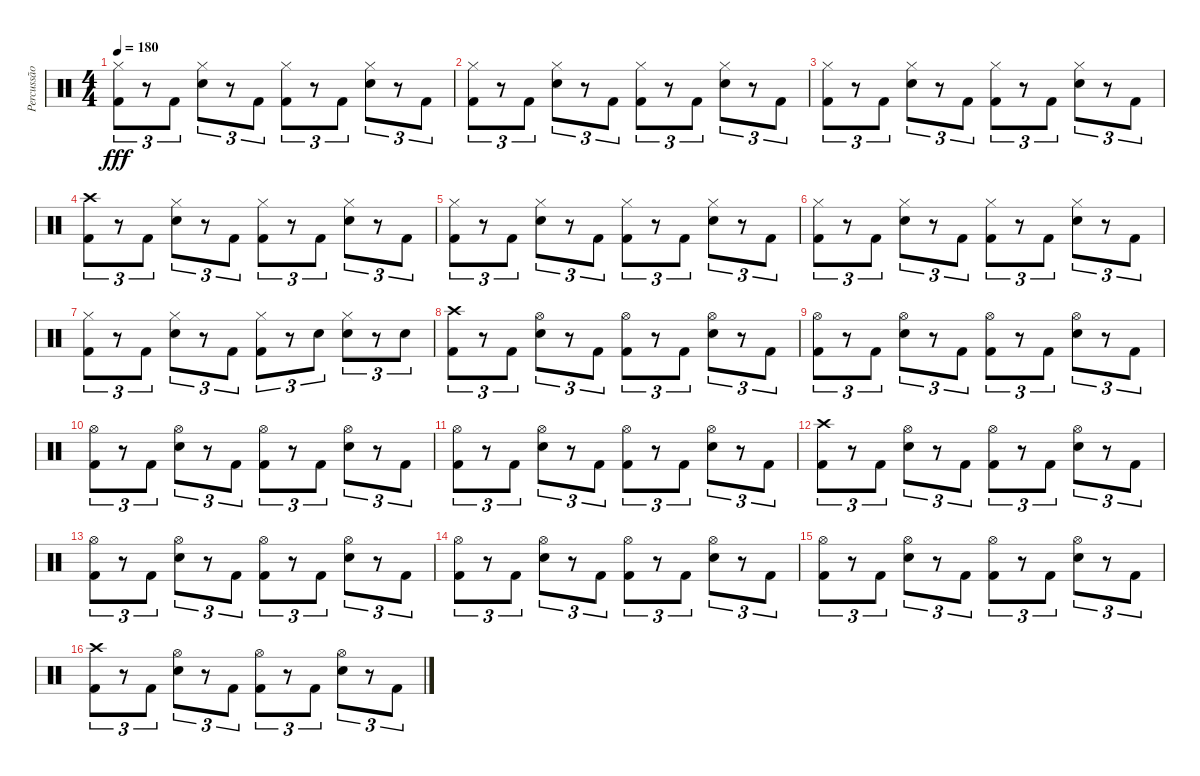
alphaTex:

\track ("Percussão" "Percussão") {instrument percussion}
\staff {score}
\articulation defaults
\ts (4 4)
\tempo 180
\clef neutral
\ks c
("Hi-Hat (closed)" "Kick (hit) 2").8{tu (3 2) dy fff} r.8{tu (3 2)} "Kick (hit) 2".8{tu (3 2)} ("Hi-Hat (closed)" "Snare (hit) 2").8{tu (3 2)} r.8{tu (3 2)} "Kick (hit) 2".8{tu (3 2)} ("Hi-Hat (closed)" "Kick (hit) 2").8{tu (3 2)} r.8{tu (3 2)} "Kick (hit) 2".8{tu (3 2)} ("Hi-Hat (closed)" "Snare (hit) 2").8{tu (3 2)} r.8{tu (3 2)} "Kick (hit) 2".8{tu (3 2)} |
("Hi-Hat (closed)" "Kick (hit) 2").8{tu (3 2)} r.8{tu (3 2)} "Kick (hit) 2".8{tu (3 2)} ("Hi-Hat (closed)" "Snare (hit) 2").8{tu (3 2)} r.8{tu (3 2)} "Kick (hit) 2".8{tu (3 2)} ("Hi-Hat (closed)" "Kick (hit) 2").8{tu (3 2)} r.8{tu (3 2)} "Kick (hit) 2".8{tu (3 2)} ("Hi-Hat (closed)" "Snare (hit) 2").8{tu (3 2)} r.8{tu (3 2)} "Kick (hit) 2".8{tu (3 2)} |
("Hi-Hat (closed)" "Kick (hit) 2").8{tu (3 2)} r.8{tu (3 2)} "Kick (hit) 2".8{tu (3 2)} ("Hi-Hat (closed)" "Snare (hit) 2").8{tu (3 2)} r.8{tu (3 2)} "Kick (hit) 2".8{tu (3 2)} ("Hi-Hat (closed)" "Kick (hit) 2").8{tu (3 2)} r.8{tu (3 2)} "Kick (hit) 2".8{tu (3 2)} ("Hi-Hat (closed)" "Snare (hit) 2").8{tu (3 2)} r.8{tu (3 2)} "Kick (hit) 2".8{tu (3 2)} |
("Crash high (hit)" "Kick (hit) 2").8{tu (3 2)} r.8{tu (3 2)} "Kick (hit) 2".8{tu (3 2)} ("Hi-Hat (closed)" "Snare (hit) 2").8{tu (3 2)} r.8{tu (3 2)} "Kick (hit) 2".8{tu (3 2)} ("Hi-Hat (closed)" "Kick (hit) 2").8{tu (3 2)} r.8{tu (3 2)} "Kick (hit) 2".8{tu (3 2)} ("Hi-Hat (closed)" "Snare (hit) 2").8{tu (3 2)} r.8{tu (3 2)} "Kick (hit) 2".8{tu (3 2)} |
("Hi-Hat (closed)" "Kick (hit) 2").8{tu (3 2)} r.8{tu (3 2)} "Kick (hit) 2".8{tu (3 2)} ("Hi-Hat (closed)" "Snare (hit) 2").8{tu (3 2)} r.8{tu (3 2)} "Kick (hit) 2".8{tu (3 2)} ("Hi-Hat (closed)" "Kick (hit) 2").8{tu (3 2)} r.8{tu (3 2)} "Kick (hit) 2".8{tu (3 2)} ("Hi-Hat (closed)" "Snare (hit) 2").8{tu (3 2)} r.8{tu (3 2)} "Kick (hit) 2".8{tu (3 2)} |
("Hi-Hat (closed)" "Kick (hit) 2").8{tu (3 2)} r.8{tu (3 2)} "Kick (hit) 2".8{tu (3 2)} ("Hi-Hat (closed)" "Snare (hit) 2").8{tu (3 2)} r.8{tu (3 2)} "Kick (hit) 2".8{tu (3 2)} ("Hi-Hat (closed)" "Kick (hit) 2").8{tu (3 2)} r.8{tu (3 2)} "Kick (hit) 2".8{tu (3 2)} ("Hi-Hat (closed)" "Snare (hit) 2").8{tu (3 2)} r.8{tu (3 2)} "Kick (hit) 2".8{tu (3 2)} |
("Hi-Hat (closed)" "Kick (hit) 2").8{tu (3 2)} r.8{tu (3 2)} "Kick (hit) 2".8{tu (3 2)} ("Hi-Hat (closed)" "Snare (hit) 2").8{tu (3 2)} r.8{tu (3 2)} "Kick (hit) 2".8{tu (3 2)} ("Hi-Hat (closed)" "Kick (hit) 2").8{tu (3 2)} r.8{tu (3 2)} "Snare (hit) 2".8{tu (3 2)} ("Hi-Hat (closed)" "Snare (hit) 2").8{tu (3 2)} r.8{tu (3 2)} "Snare (hit) 2".8{tu (3 2)} |
("Crash high (hit)" "Kick (hit) 2").8{tu (3 2)} r.8{tu (3 2)} "Kick (hit) 2".8{tu (3 2)} ("Hi-Hat (open)" "Snare (hit) 2").8{tu (3 2)} r.8{tu (3 2)} "Kick (hit) 2".8{tu (3 2)} ("Hi-Hat (open)" "Kick (hit) 2").8{tu (3 2)} r.8{tu (3 2)} "Kick (hit) 2".8{tu (3 2)} ("Hi-Hat (open)" "Snare (hit) 2").8{tu (3 2)} r.8{tu (3 2)} "Kick (hit) 2".8{tu (3 2)} |
("Hi-Hat (open)" "Kick (hit) 2").8{tu (3 2)} r.8{tu (3 2)} "Kick (hit) 2".8{tu (3 2)} ("Hi-Hat (open)" "Snare (hit) 2").8{tu (3 2)} r.8{tu (3 2)} "Kick (hit) 2".8{tu (3 2)} ("Hi-Hat (open)" "Kick (hit) 2").8{tu (3 2)} r.8{tu (3 2)} "Kick (hit) 2".8{tu (3 2)} ("Hi-Hat (open)" "Snare (hit) 2").8{tu (3 2)} r.8{tu (3 2)} "Kick (hit) 2".8{tu (3 2)} |
("Hi-Hat (open)" "Kick (hit) 2").8{tu (3 2)} r.8{tu (3 2)} "Kick (hit) 2".8{tu (3 2)} ("Hi-Hat (open)" "Snare (hit) 2").8{tu (3 2)} r.8{tu (3 2)} "Kick (hit) 2".8{tu (3 2)} ("Hi-Hat (open)" "Kick (hit) 2").8{tu (3 2)} r.8{tu (3 2)} "Kick (hit) 2".8{tu (3 2)} ("Hi-Hat (open)" "Snare (hit) 2").8{tu (3 2)} r.8{tu (3 2)} "Kick (hit) 2".8{tu (3 2)} |
("Hi-Hat (open)" "Kick (hit) 2").8{tu (3 2)} r.8{tu (3 2)} "Kick (hit) 2".8{tu (3 2)} ("Hi-Hat (open)" "Snare (hit) 2").8{tu (3 2)} r.8{tu (3 2)} "Kick (hit) 2".8{tu (3 2)} ("Hi-Hat (open)" "Kick (hit) 2").8{tu (3 2)} r.8{tu (3 2)} "Kick (hit) 2".8{tu (3 2)} ("Hi-Hat (open)" "Snare (hit) 2").8{tu (3 2)} r.8{tu (3 2)} "Kick (hit) 2".8{tu (3 2)} |
("Crash high (hit)" "Kick (hit) 2").8{tu (3 2)} r.8{tu (3 2)} "Kick (hit) 2".8{tu (3 2)} ("Hi-Hat (open)" "Snare (hit) 2").8{tu (3 2)} r.8{tu (3 2)} "Kick (hit) 2".8{tu (3 2)} ("Hi-Hat (open)" "Kick (hit) 2").8{tu (3 2)} r.8{tu (3 2)} "Kick (hit) 2".8{tu (3 2)} ("Hi-Hat (open)" "Snare (hit) 2").8{tu (3 2)} r.8{tu (3 2)} "Kick (hit) 2".8{tu (3 2)} |
("Hi-Hat (open)" "Kick (hit) 2").8{tu (3 2)} r.8{tu (3 2)} "Kick (hit) 2".8{tu (3 2)} ("Hi-Hat (open)" "Snare (hit) 2").8{tu (3 2)} r.8{tu (3 2)} "Kick (hit) 2".8{tu (3 2)} ("Hi-Hat (open)" "Kick (hit) 2").8{tu (3 2)} r.8{tu (3 2)} "Kick (hit) 2".8{tu (3 2)} ("Hi-Hat (open)" "Snare (hit) 2").8{tu (3 2)} r.8{tu (3 2)} "Kick (hit) 2".8{tu (3 2)} |
("Hi-Hat (open)" "Kick (hit) 2").8{tu (3 2)} r.8{tu (3 2)} "Kick (hit) 2".8{tu (3 2)} ("Hi-Hat (open)" "Snare (hit) 2").8{tu (3 2)} r.8{tu (3 2)} "Kick (hit) 2".8{tu (3 2)} ("Hi-Hat (open)" "Kick (hit) 2").8{tu (3 2)} r.8{tu (3 2)} "Kick (hit) 2".8{tu (3 2)} ("Hi-Hat (open)" "Snare (hit) 2").8{tu (3 2)} r.8{tu (3 2)} "Kick (hit) 2".8{tu (3 2)} |
("Hi-Hat (open)" "Kick (hit) 2").8{tu (3 2)} r.8{tu (3 2)} "Kick (hit) 2".8{tu (3 2)} ("Hi-Hat (open)" "Snare (hit) 2").8{tu (3 2)} r.8{tu (3 2)} "Kick (hit) 2".8{tu (3 2)} ("Hi-Hat (open)" "Kick (hit) 2").8{tu (3 2)} r.8{tu (3 2)} "Kick (hit) 2".8{tu (3 2)} ("Hi-Hat (open)" "Snare (hit) 2").8{tu (3 2)} r.8{tu (3 2)} "Kick (hit) 2".8{tu (3 2)} |
("Crash high (hit)" "Kick (hit) 2").8{tu (3 2)} r.8{tu (3 2)} "Kick (hit) 2".8{tu (3 2)} ("Hi-Hat (open)" "Snare (hit) 2").8{tu (3 2)} r.8{tu (3 2)} "Kick (hit) 2".8{tu (3 2)} ("Hi-Hat (open)" "Kick (hit) 2").8{tu (3 2)} r.8{tu (3 2)} "Kick (hit) 2".8{tu (3 2)} ("Hi-Hat (open)" "Snare (hit) 2").8{tu (3 2)} r.8{tu (3 2)} "Kick (hit) 2".8{tu (3 2)}
